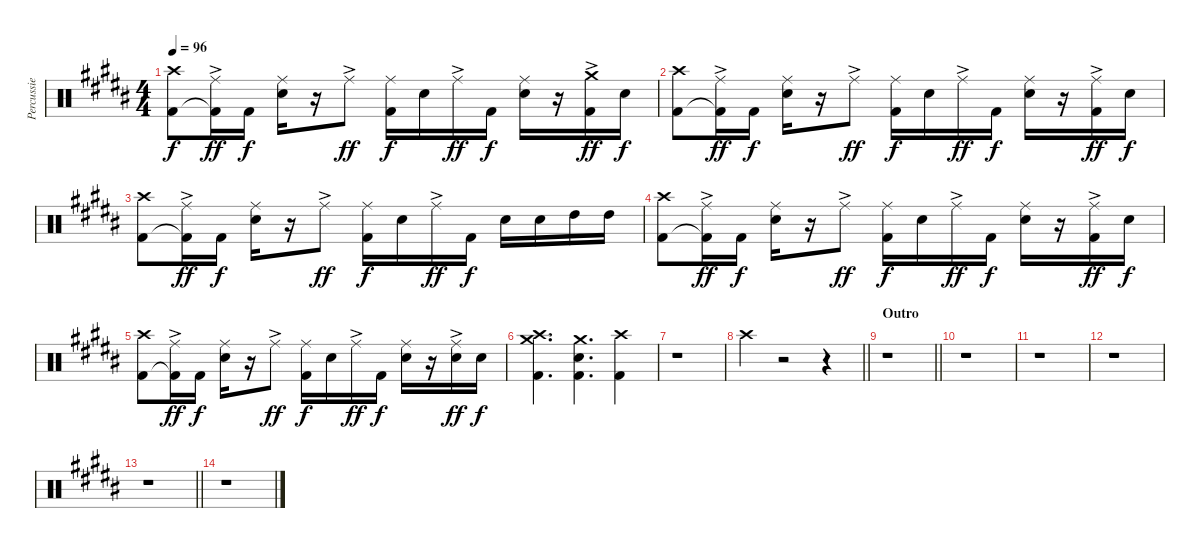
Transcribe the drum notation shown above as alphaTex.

\track ("Percussie" "Percussie") {instrument percussion}
\staff {score}
\articulation defaults
\ts (4 4)
\tempo 96
\clef neutral
\ks b
("Crash high (hit)" "Kick (hit) 2").8{dy f} ("Ride (middle)"{ac} "Kick (hit) 2"{t}).16{dy ff} "Kick (hit) 2".16{dy f} ("Ride (middle)" "Electric Snare (hit)").16 r.16 "Ride (middle)"{ac}.8{dy ff} ("Ride (middle)" "Kick (hit) 2").16{dy f} "Electric Snare (hit)".16 "Ride (middle)"{ac}.16{dy ff} "Kick (hit) 2".16{dy f} ("Ride (middle)" "Electric Snare (hit)").16 r.16 ("Crash medium (hit)"{ac} "Kick (hit) 2").16{dy ff} "Electric Snare (hit)".16{dy f} |
("Crash high (hit)" "Kick (hit) 2").8 ("Ride (middle)"{ac} "Kick (hit) 2"{t}).16{dy ff} "Kick (hit) 2".16{dy f} ("Ride (middle)" "Electric Snare (hit)").16 r.16 "Ride (middle)"{ac}.8{dy ff} ("Ride (middle)" "Kick (hit) 2").16{dy f} "Electric Snare (hit)".16 "Ride (middle)"{ac}.16{dy ff} "Kick (hit) 2".16{dy f} ("Ride (middle)" "Electric Snare (hit)").16 r.16 ("Ride (middle)"{ac} "Kick (hit) 2").16{dy ff} "Electric Snare (hit)".16{dy f} |
("Crash high (hit)" "Kick (hit) 2").8 ("Ride (middle)"{ac} "Kick (hit) 2"{t}).16{dy ff} "Kick (hit) 2".16{dy f} ("Ride (middle)" "Electric Snare (hit)").16 r.16 "Ride (middle)"{ac}.8{dy ff} ("Ride (middle)" "Kick (hit) 2").16{dy f} "Electric Snare (hit)".16 "Ride (middle)"{ac}.16{dy ff} "Kick (hit) 2".16{dy f} "Electric Snare (hit)".16 "Electric Snare (hit)".16 "High Tom (hit)".16 "High Tom (hit)".16 |
("Crash high (hit)" "Kick (hit) 2").8 ("Ride (middle)"{ac} "Kick (hit) 2"{t}).16{dy ff} "Kick (hit) 2".16{dy f} ("Ride (middle)" "Electric Snare (hit)").16 r.16 "Ride (middle)"{ac}.8{dy ff} ("Ride (middle)" "Kick (hit) 2").16{dy f} "Electric Snare (hit)".16 "Ride (middle)"{ac}.16{dy ff} "Kick (hit) 2".16{dy f} ("Ride (middle)" "Electric Snare (hit)").16 r.16 ("Ride (middle)"{ac} "Kick (hit) 2").16{dy ff} "Electric Snare (hit)".16{dy f} |
("Crash high (hit)" "Kick (hit) 2").8 ("Ride (middle)"{ac} "Kick (hit) 2"{t}).16{dy ff} "Kick (hit) 2".16{dy f} ("Ride (middle)" "Electric Snare (hit)").16 r.16 "Ride (middle)"{ac}.8{dy ff} ("Ride (middle)" "Kick (hit) 2").16{dy f} "Electric Snare (hit)".16 "Ride (middle)"{ac}.16{dy ff} "Kick (hit) 2".16{dy f} ("Ride (middle)" "Electric Snare (hit)").16 r.16 ("Ride (middle)"{ac} "Electric Snare (hit)").16{dy ff} "Electric Snare (hit)".16{dy f} |
("Crash medium (hit)" "Crash high (hit)" "Kick (hit) 2").4{d} ("Crash medium (hit)" "Electric Snare (hit)" "Kick (hit) 2").4{d} ("Crash high (hit)" "Kick (hit) 2").4 |
r.1 |
\barLineRight lightlight "Crash high (hit)".4
r.2 r.4 |
\section ("" "Outro")
\barLineRight lightlight
r.1 |
r.1 |
r.1 |
r.1 |
\barLineRight lightlight
r.1 |
r.1
